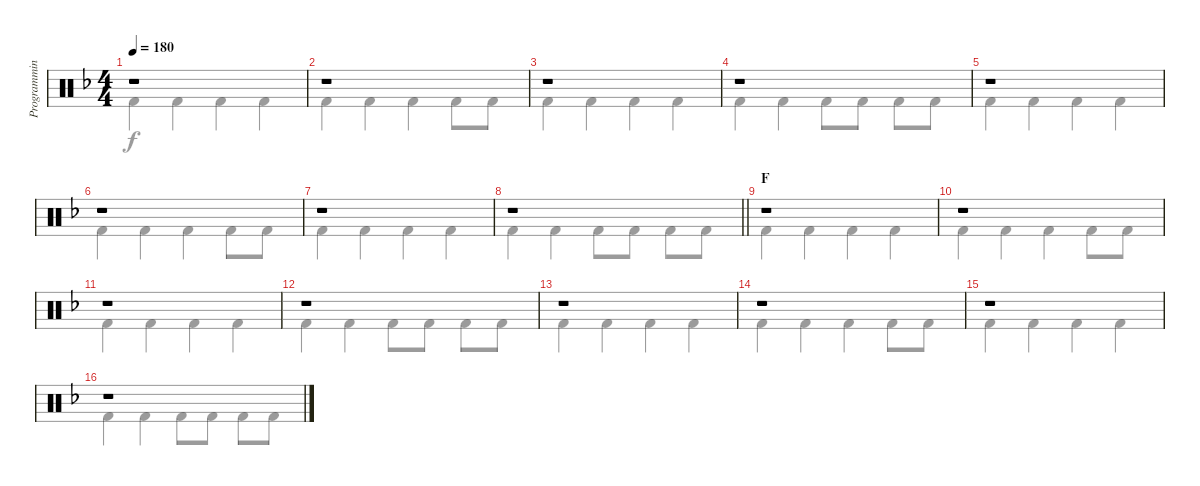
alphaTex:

\track ("Programming" "Programmin") {instrument percussion}
\staff {score}
\articulation defaults
\voice
\ts (4 4)
\tempo 180
\clef neutral
\ks f
r.1{dy mp} |
r.1 |
r.1 |
r.1 |
r.1 |
r.1 |
r.1 |
\barLineRight lightlight
r.1 |
\section ("" "F")
r.1 |
r.1 |
r.1 |
r.1 |
r.1 |
r.1 |
r.1 |
r.1
\voice
\clef neutral
\ottava regular
\simile none
\ks f "Kick (hit) 2".4{dy f} "Kick (hit) 2".4 "Kick (hit) 2".4 "Kick (hit) 2".4
|
"Kick (hit) 2".4 "Kick (hit) 2".4 "Kick (hit) 2".4 "Kick (hit) 2".8 "Kick (hit) 2".8 |
"Kick (hit) 2".4 "Kick (hit) 2".4 "Kick (hit) 2".4 "Kick (hit) 2".4 |
"Kick (hit) 2".4 "Kick (hit) 2".4 "Kick (hit) 2".8 "Kick (hit) 2".8 "Kick (hit) 2".8 "Kick (hit) 2".8 |
"Kick (hit) 2".4 "Kick (hit) 2".4 "Kick (hit) 2".4 "Kick (hit) 2".4 |
"Kick (hit) 2".4 "Kick (hit) 2".4 "Kick (hit) 2".4 "Kick (hit) 2".8 "Kick (hit) 2".8 |
"Kick (hit) 2".4 "Kick (hit) 2".4 "Kick (hit) 2".4 "Kick (hit) 2".4 |
\barLineRight lightlight "Kick (hit) 2".4 "Kick (hit) 2".4 "Kick (hit) 2".8 "Kick (hit) 2".8 "Kick (hit) 2".8 "Kick (hit) 2".8
|
"Kick (hit) 2".4 "Kick (hit) 2".4 "Kick (hit) 2".4 "Kick (hit) 2".4 |
"Kick (hit) 2".4 "Kick (hit) 2".4 "Kick (hit) 2".4 "Kick (hit) 2".8 "Kick (hit) 2".8 |
"Kick (hit) 2".4 "Kick (hit) 2".4 "Kick (hit) 2".4 "Kick (hit) 2".4 |
"Kick (hit) 2".4 "Kick (hit) 2".4 "Kick (hit) 2".8 "Kick (hit) 2".8 "Kick (hit) 2".8 "Kick (hit) 2".8 |
"Kick (hit) 2".4 "Kick (hit) 2".4 "Kick (hit) 2".4 "Kick (hit) 2".4 |
"Kick (hit) 2".4 "Kick (hit) 2".4 "Kick (hit) 2".4 "Kick (hit) 2".8 "Kick (hit) 2".8 |
"Kick (hit) 2".4 "Kick (hit) 2".4 "Kick (hit) 2".4 "Kick (hit) 2".4 |
"Kick (hit) 2".4 "Kick (hit) 2".4 "Kick (hit) 2".8 "Kick (hit) 2".8 "Kick (hit) 2".8 "Kick (hit) 2".8
